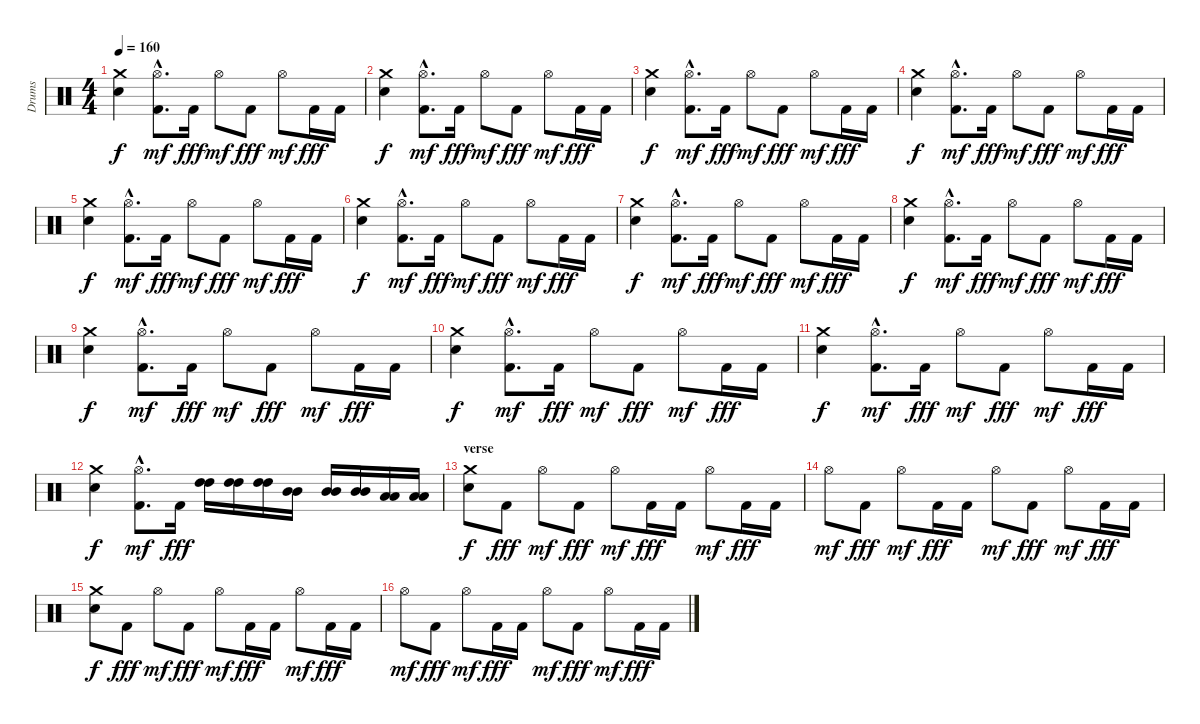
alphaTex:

\track ("Drums" "Drums") {instrument percussion}
\staff {score}
\articulation defaults
\ts (4 4)
\tempo 160
\clef neutral
\ks c
("Crash medium (hit)" "Electric Snare (hit)").4{dy f} ("Kick (hit) 2"{hac} "Hi-Hat (open)"{hac}).8{d dy mf} "Kick (hit) 2".16{dy fff} "Hi-Hat (open)".8{dy mf} "Kick (hit) 2".8{dy fff} "Hi-Hat (open)".8{dy mf} "Kick (hit) 2".16{dy fff} "Kick (hit) 2".16 |
("Crash medium (hit)" "Electric Snare (hit)").4{dy f} ("Kick (hit) 2"{hac} "Hi-Hat (open)"{hac}).8{d dy mf} "Kick (hit) 2".16{dy fff} "Hi-Hat (open)".8{dy mf} "Kick (hit) 2".8{dy fff} "Hi-Hat (open)".8{dy mf} "Kick (hit) 2".16{dy fff} "Kick (hit) 2".16 |
("Crash medium (hit)" "Electric Snare (hit)").4{dy f} ("Kick (hit) 2"{hac} "Hi-Hat (open)"{hac}).8{d dy mf} "Kick (hit) 2".16{dy fff} "Hi-Hat (open)".8{dy mf} "Kick (hit) 2".8{dy fff} "Hi-Hat (open)".8{dy mf} "Kick (hit) 2".16{dy fff} "Kick (hit) 2".16 |
("Crash medium (hit)" "Electric Snare (hit)").4{dy f} ("Kick (hit) 2"{hac} "Hi-Hat (open)"{hac}).8{d dy mf} "Kick (hit) 2".16{dy fff} "Hi-Hat (open)".8{dy mf} "Kick (hit) 2".8{dy fff} "Hi-Hat (open)".8{dy mf} "Kick (hit) 2".16{dy fff} "Kick (hit) 2".16 |
("Crash medium (hit)" "Electric Snare (hit)").4{dy f} ("Kick (hit) 2"{hac} "Hi-Hat (open)"{hac}).8{d dy mf} "Kick (hit) 2".16{dy fff} "Hi-Hat (open)".8{dy mf} "Kick (hit) 2".8{dy fff} "Hi-Hat (open)".8{dy mf} "Kick (hit) 2".16{dy fff} "Kick (hit) 2".16 |
("Crash medium (hit)" "Electric Snare (hit)").4{dy f} ("Kick (hit) 2"{hac} "Hi-Hat (open)"{hac}).8{d dy mf} "Kick (hit) 2".16{dy fff} "Hi-Hat (open)".8{dy mf} "Kick (hit) 2".8{dy fff} "Hi-Hat (open)".8{dy mf} "Kick (hit) 2".16{dy fff} "Kick (hit) 2".16 |
("Crash medium (hit)" "Electric Snare (hit)").4{dy f} ("Kick (hit) 2"{hac} "Hi-Hat (open)"{hac}).8{d dy mf} "Kick (hit) 2".16{dy fff} "Hi-Hat (open)".8{dy mf} "Kick (hit) 2".8{dy fff} "Hi-Hat (open)".8{dy mf} "Kick (hit) 2".16{dy fff} "Kick (hit) 2".16 |
("Crash medium (hit)" "Electric Snare (hit)").4{dy f} ("Kick (hit) 2"{hac} "Hi-Hat (open)"{hac}).8{d dy mf} "Kick (hit) 2".16{dy fff} "Hi-Hat (open)".8{dy mf} "Kick (hit) 2".8{dy fff} "Hi-Hat (open)".8{dy mf} "Kick (hit) 2".16{dy fff} "Kick (hit) 2".16 |
("Crash medium (hit)" "Electric Snare (hit)").4{dy f} ("Kick (hit) 2"{hac} "Hi-Hat (open)"{hac}).8{d dy mf} "Kick (hit) 2".16{dy fff} "Hi-Hat (open)".8{dy mf} "Kick (hit) 2".8{dy fff} "Hi-Hat (open)".8{dy mf} "Kick (hit) 2".16{dy fff} "Kick (hit) 2".16 |
("Crash medium (hit)" "Electric Snare (hit)").4{dy f} ("Kick (hit) 2"{hac} "Hi-Hat (open)"{hac}).8{d dy mf} "Kick (hit) 2".16{dy fff} "Hi-Hat (open)".8{dy mf} "Kick (hit) 2".8{dy fff} "Hi-Hat (open)".8{dy mf} "Kick (hit) 2".16{dy fff} "Kick (hit) 2".16 |
("Crash medium (hit)" "Electric Snare (hit)").4{dy f} ("Kick (hit) 2"{hac} "Hi-Hat (open)"{hac}).8{d dy mf} "Kick (hit) 2".16{dy fff} "Hi-Hat (open)".8{dy mf} "Kick (hit) 2".8{dy fff} "Hi-Hat (open)".8{dy mf} "Kick (hit) 2".16{dy fff} "Kick (hit) 2".16 |
("Crash medium (hit)" "Electric Snare (hit)").4{dy f} ("Kick (hit) 2"{hac} "Hi-Hat (open)"{hac}).8{d dy mf} "Kick (hit) 2".16{dy fff} ("High Tom (hit)" "High Tom (hit)").16 ("High Tom (hit)" "High Tom (hit)").16 ("High Tom (hit)" "High Tom (hit)").16 ("Mid Tom (hit)" "Mid Tom (hit)").16 ("Mid Tom (hit)" "Mid Tom (hit)").16 ("Mid Tom (hit)" "Mid Tom (hit)").16 ("Low Tom (hit)" "Low Tom (hit)").16 ("Low Tom (hit)" "Low Tom (hit)").16 |
\section ("" "verse")
("Crash medium (hit)" "Electric Snare (hit)").8{dy f} "Kick (hit) 2".8{dy fff} "Hi-Hat (open)".8{dy mf} "Kick (hit) 2".8{dy fff} "Hi-Hat (open)".8{dy mf} "Kick (hit) 2".16{dy fff} "Kick (hit) 2".16 "Hi-Hat (open)".8{dy mf} "Kick (hit) 2".16{dy fff} "Kick (hit) 2".16 |
"Hi-Hat (open)".8{dy mf} "Kick (hit) 2".8{dy fff} "Hi-Hat (open)".8{dy mf} "Kick (hit) 2".16{dy fff} "Kick (hit) 2".16 "Hi-Hat (open)".8{dy mf} "Kick (hit) 2".8{dy fff} "Hi-Hat (open)".8{dy mf} "Kick (hit) 2".16{dy fff} "Kick (hit) 2".16 |
("Crash medium (hit)" "Electric Snare (hit)").8{dy f} "Kick (hit) 2".8{dy fff} "Hi-Hat (open)".8{dy mf} "Kick (hit) 2".8{dy fff} "Hi-Hat (open)".8{dy mf} "Kick (hit) 2".16{dy fff} "Kick (hit) 2".16 "Hi-Hat (open)".8{dy mf} "Kick (hit) 2".16{dy fff} "Kick (hit) 2".16 |
"Hi-Hat (open)".8{dy mf} "Kick (hit) 2".8{dy fff} "Hi-Hat (open)".8{dy mf} "Kick (hit) 2".16{dy fff} "Kick (hit) 2".16 "Hi-Hat (open)".8{dy mf} "Kick (hit) 2".8{dy fff} "Hi-Hat (open)".8{dy mf} "Kick (hit) 2".16{dy fff} "Kick (hit) 2".16
